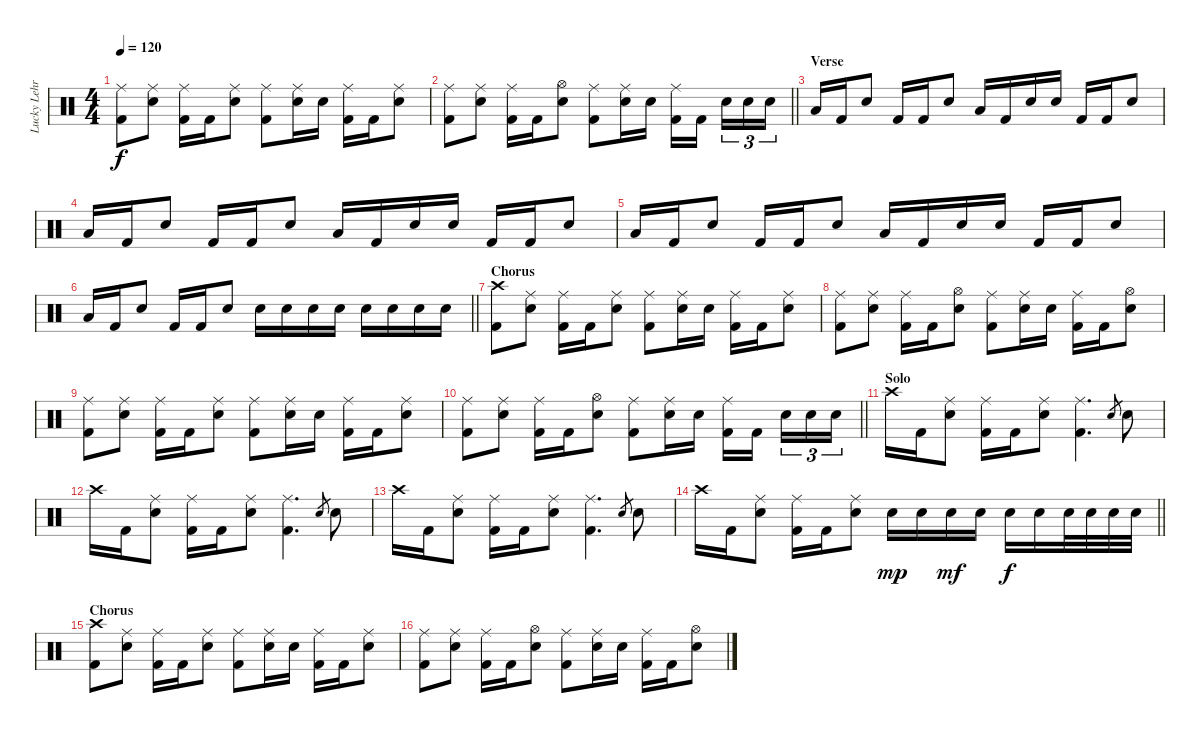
\track ("Lucky Lehrer" "Lucky Lehr") {instrument percussion}
\staff {score}
\articulation defaults
\ts (4 4)
\tempo 120
\clef neutral
\ks c
("Ride (middle)" "Kick (hit) 2").8{dy f} ("Ride (middle)" "Electric Snare (hit)").8 ("Ride (middle)" "Kick (hit) 2").16 "Kick (hit) 2".16 ("Ride (middle)" "Electric Snare (hit)").8 ("Ride (middle)" "Kick (hit) 2").8 ("Ride (middle)" "Electric Snare (hit)").16 "Electric Snare (hit)".16 ("Ride (middle)" "Kick (hit) 2").16 "Kick (hit) 2".16 ("Ride (middle)" "Electric Snare (hit)").8 |
\barLineRight lightlight
("Ride (middle)" "Kick (hit) 2").8 ("Ride (middle)" "Electric Snare (hit)").8 ("Ride (middle)" "Kick (hit) 2").16 "Kick (hit) 2".16 ("Hi-Hat (open)" "Electric Snare (hit)").8 ("Ride (middle)" "Kick (hit) 2").8 ("Ride (middle)" "Electric Snare (hit)").16 "Electric Snare (hit)".16 ("Ride (middle)" "Kick (hit) 2").16 "Kick (hit) 2".16{beam splitsecondary} "Electric Snare (hit)".16{tu (3 2)} "Electric Snare (hit)".16{tu (3 2)} "Electric Snare (hit)".16{tu (3 2)} |
\section ("" "Verse")
"Low Tom (hit)".16 "Kick (hit) 2".16 "Electric Snare (hit)".8 "Kick (hit) 2".16 "Kick (hit) 2".16 "Electric Snare (hit)".8 "Low Tom (hit)".16 "Kick (hit) 2".16 "Electric Snare (hit)".16 "Electric Snare (hit)".16 "Kick (hit) 2".16 "Kick (hit) 2".16 "Electric Snare (hit)".8 |
"Low Tom (hit)".16 "Kick (hit) 2".16 "Electric Snare (hit)".8 "Kick (hit) 2".16 "Kick (hit) 2".16 "Electric Snare (hit)".8 "Low Tom (hit)".16 "Kick (hit) 2".16 "Electric Snare (hit)".16 "Electric Snare (hit)".16 "Kick (hit) 2".16 "Kick (hit) 2".16 "Electric Snare (hit)".8 |
"Low Tom (hit)".16 "Kick (hit) 2".16 "Electric Snare (hit)".8 "Kick (hit) 2".16 "Kick (hit) 2".16 "Electric Snare (hit)".8 "Low Tom (hit)".16 "Kick (hit) 2".16 "Electric Snare (hit)".16 "Electric Snare (hit)".16 "Kick (hit) 2".16 "Kick (hit) 2".16 "Electric Snare (hit)".8 |
\barLineRight lightlight "Low Tom (hit)".16 "Kick (hit) 2".16 "Electric Snare (hit)".8 "Kick (hit) 2".16 "Kick (hit) 2".16 "Electric Snare (hit)".8 "Electric Snare (hit)".16 "Electric Snare (hit)".16 "Electric Snare (hit)".16 "Electric Snare (hit)".16 "Electric Snare (hit)".16 "Electric Snare (hit)".16 "Electric Snare (hit)".16 "Electric Snare (hit)".16
|
\section ("" "Chorus")
("Crash high (hit)" "Kick (hit) 2").8 ("Ride (middle)" "Electric Snare (hit)").8 ("Ride (middle)" "Kick (hit) 2").16 "Kick (hit) 2".16 ("Ride (middle)" "Electric Snare (hit)").8 ("Ride (middle)" "Kick (hit) 2").8 ("Ride (middle)" "Electric Snare (hit)").16 "Electric Snare (hit)".16 ("Ride (middle)" "Kick (hit) 2").16 "Kick (hit) 2".16 ("Ride (middle)" "Electric Snare (hit)").8 |
("Ride (middle)" "Kick (hit) 2").8 ("Ride (middle)" "Electric Snare (hit)").8 ("Ride (middle)" "Kick (hit) 2").16 "Kick (hit) 2".16 ("Hi-Hat (open)" "Electric Snare (hit)").8 ("Ride (middle)" "Kick (hit) 2").8 ("Ride (middle)" "Electric Snare (hit)").16 "Electric Snare (hit)".16 ("Ride (middle)" "Kick (hit) 2").16 "Kick (hit) 2".16 ("Hi-Hat (open)" "Electric Snare (hit)").8 |
("Ride (middle)" "Kick (hit) 2").8 ("Ride (middle)" "Electric Snare (hit)").8 ("Ride (middle)" "Kick (hit) 2").16 "Kick (hit) 2".16 ("Ride (middle)" "Electric Snare (hit)").8 ("Ride (middle)" "Kick (hit) 2").8 ("Ride (middle)" "Electric Snare (hit)").16 "Electric Snare (hit)".16 ("Ride (middle)" "Kick (hit) 2").16 "Kick (hit) 2".16 ("Ride (middle)" "Electric Snare (hit)").8 |
\barLineRight lightlight
("Ride (middle)" "Kick (hit) 2").8 ("Ride (middle)" "Electric Snare (hit)").8 ("Ride (middle)" "Kick (hit) 2").16 "Kick (hit) 2".16 ("Hi-Hat (open)" "Electric Snare (hit)").8 ("Ride (middle)" "Kick (hit) 2").8 ("Ride (middle)" "Electric Snare (hit)").16 "Electric Snare (hit)".16 ("Ride (middle)" "Kick (hit) 2").16 "Kick (hit) 2".16{beam splitsecondary} "Electric Snare (hit)".16{tu (3 2)} "Electric Snare (hit)".16{tu (3 2)} "Electric Snare (hit)".16{tu (3 2)} |
\section ("" "Solo")
"Crash high (hit)".16 "Kick (hit) 2".16 ("Ride (middle)" "Electric Snare (hit)").8 ("Ride (middle)" "Kick (hit) 2").16 "Kick (hit) 2".16 ("Ride (middle)" "Electric Snare (hit)").8 ("Ride (middle)" "Kick (hit) 2").4{d} "Electric Snare (hit)".8{gr} "Electric Snare (hit)".8 |
"Crash high (hit)".16 "Kick (hit) 2".16 ("Ride (middle)" "Electric Snare (hit)").8 ("Ride (middle)" "Kick (hit) 2").16 "Kick (hit) 2".16 ("Ride (middle)" "Electric Snare (hit)").8 ("Ride (middle)" "Kick (hit) 2").4{d} "Electric Snare (hit)".8{gr} "Electric Snare (hit)".8 |
"Crash high (hit)".16 "Kick (hit) 2".16 ("Ride (middle)" "Electric Snare (hit)").8 ("Ride (middle)" "Kick (hit) 2").16 "Kick (hit) 2".16 ("Ride (middle)" "Electric Snare (hit)").8 ("Ride (middle)" "Kick (hit) 2").4{d} "Electric Snare (hit)".8{gr} "Electric Snare (hit)".8 |
\barLineRight lightlight "Crash high (hit)".16 "Kick (hit) 2".16
("Ride (middle)" "Electric Snare (hit)").8 ("Ride (middle)" "Kick (hit) 2").16 "Kick (hit) 2".16 ("Ride (middle)" "Electric Snare (hit)").8 "Electric Snare (hit)".16{dy mp} "Electric Snare (hit)".16 "Electric Snare (hit)".16{dy mf} "Electric Snare (hit)".16 "Electric Snare (hit)".16{dy f} "Electric Snare (hit)".16 "Electric Snare (hit)".32 "Electric Snare (hit)".32 "Electric Snare (hit)".32 "Electric Snare (hit)".32 |
\section ("" "Chorus")
("Crash high (hit)" "Kick (hit) 2").8 ("Ride (middle)" "Electric Snare (hit)").8 ("Ride (middle)" "Kick (hit) 2").16 "Kick (hit) 2".16 ("Ride (middle)" "Electric Snare (hit)").8 ("Ride (middle)" "Kick (hit) 2").8 ("Ride (middle)" "Electric Snare (hit)").16 "Electric Snare (hit)".16 ("Ride (middle)" "Kick (hit) 2").16 "Kick (hit) 2".16 ("Ride (middle)" "Electric Snare (hit)").8 |
("Ride (middle)" "Kick (hit) 2").8 ("Ride (middle)" "Electric Snare (hit)").8 ("Ride (middle)" "Kick (hit) 2").16 "Kick (hit) 2".16 ("Hi-Hat (open)" "Electric Snare (hit)").8 ("Ride (middle)" "Kick (hit) 2").8 ("Ride (middle)" "Electric Snare (hit)").16 "Electric Snare (hit)".16 ("Ride (middle)" "Kick (hit) 2").16 "Kick (hit) 2".16 ("Hi-Hat (open)" "Electric Snare (hit)").8
